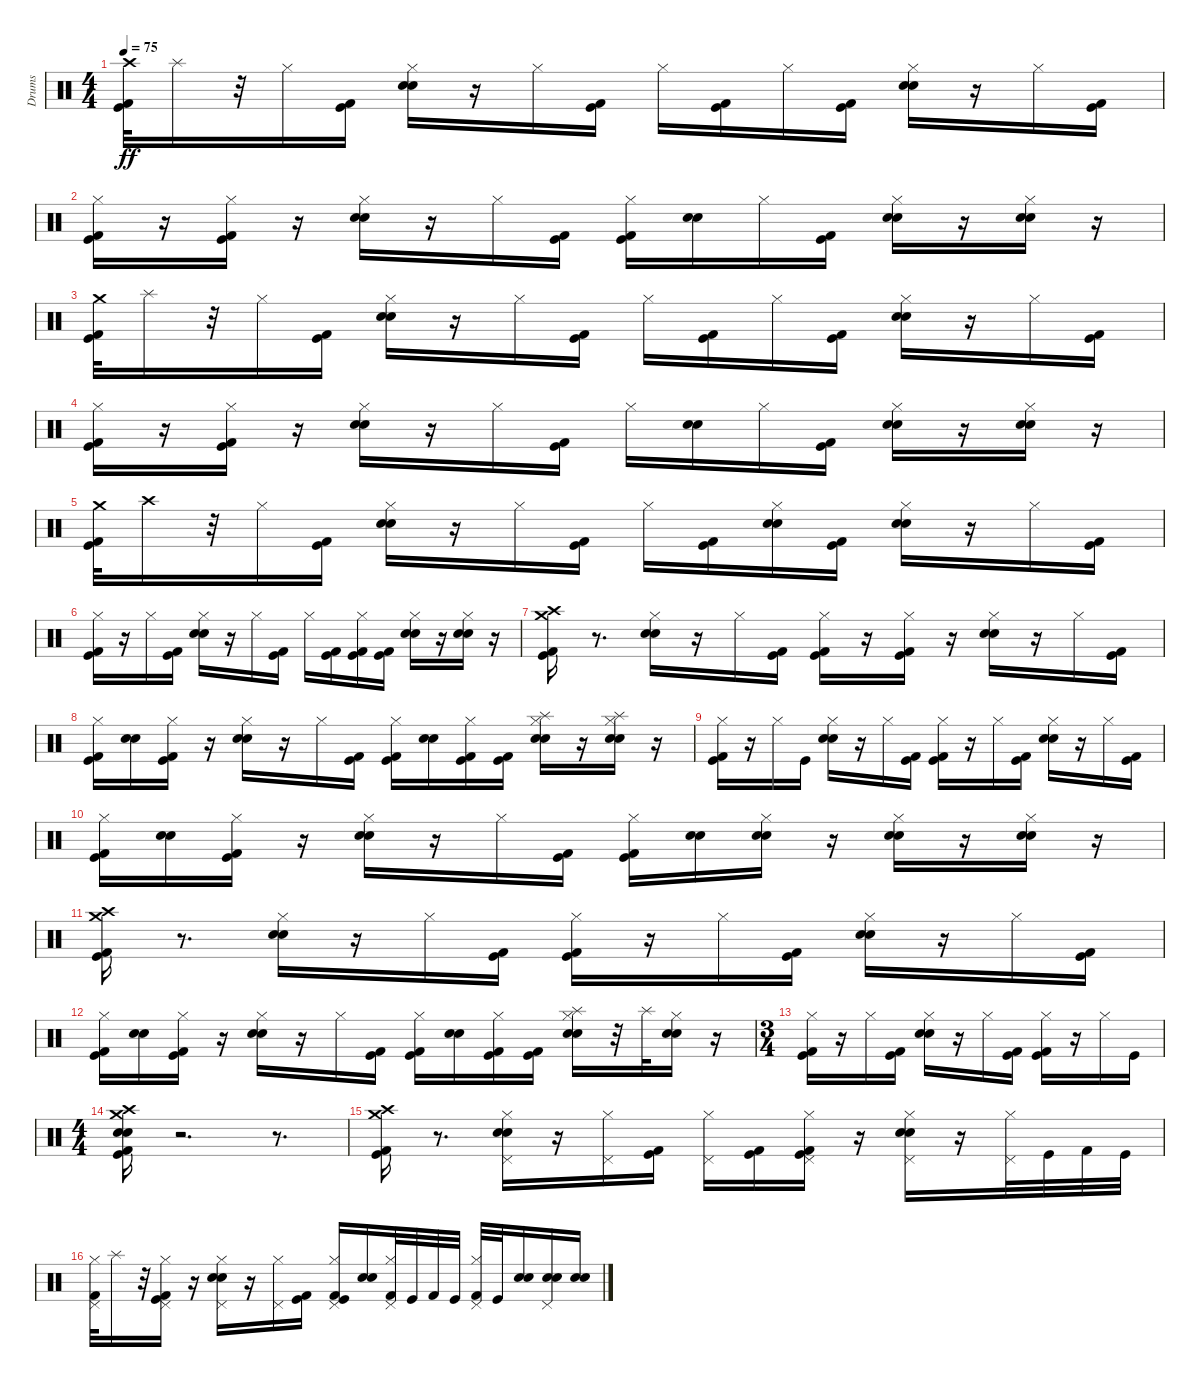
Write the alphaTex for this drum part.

\track ("Drums" "Drums") {instrument percussion}
\staff {score}
\articulation defaults
\ts (4 4)
\tempo 75
\clef neutral
\ks c
("Kick (hit)" "Crash high (hit)" "Kick (hit) 2").32{dy ff} "Splash (hit)".16 r.32 "Hi-Hat (closed)".16 ("Kick (hit) 2" "Kick (hit)").16 ("Snare (hit) 2" "Hi-Hat (closed)" "Electric Snare (hit)").16 r.16 "Hi-Hat (closed)".16 ("Kick (hit)" "Kick (hit) 2").16 "Hi-Hat (closed)".16 ("Kick (hit) 2" "Kick (hit)").16 "Hi-Hat (closed)".16 ("Kick (hit)" "Kick (hit) 2").16 ("Snare (hit) 2" "Electric Snare (hit)" "Hi-Hat (closed)").16 r.16 "Hi-Hat (closed)".16 ("Kick (hit) 2" "Kick (hit)").16 |
("Hi-Hat (closed)" "Kick (hit) 2" "Kick (hit)").16 r.16 ("Kick (hit)" "Kick (hit) 2" "Hi-Hat (closed)").16 r.16 ("Electric Snare (hit)" "Hi-Hat (closed)" "Snare (hit) 2").16 r.16 "Hi-Hat (closed)".16 ("Kick (hit)" "Kick (hit) 2").16 ("Kick (hit) 2" "Kick (hit)" "Hi-Hat (closed)").16 ("Electric Snare (hit)" "Snare (hit) 2").16 "Hi-Hat (closed)".16 ("Kick (hit) 2" "Kick (hit)").16 ("Hi-Hat (closed)" "Electric Snare (hit)" "Snare (hit) 2").16 r.16 ("Hi-Hat (closed)" "Snare (hit) 2" "Electric Snare (hit)").16 r.16 |
("Kick (hit)" "Crash medium (hit)" "Kick (hit) 2").32 "Splash (hit)".16 r.32 "Hi-Hat (closed)".16 ("Kick (hit)" "Kick (hit) 2").16 ("Snare (hit) 2" "Hi-Hat (closed)" "Electric Snare (hit)").16 r.16 "Hi-Hat (closed)".16 ("Kick (hit) 2" "Kick (hit)").16 "Hi-Hat (closed)".16 ("Kick (hit)" "Kick (hit) 2").16 "Hi-Hat (closed)".16 ("Kick (hit)" "Kick (hit) 2").16 ("Electric Snare (hit)" "Hi-Hat (closed)" "Snare (hit) 2").16 r.16 "Hi-Hat (closed)".16 ("Kick (hit)" "Kick (hit) 2").16 |
("Hi-Hat (closed)" "Kick (hit) 2" "Kick (hit)").16 r.16 ("Hi-Hat (closed)" "Kick (hit)" "Kick (hit) 2").16 r.16 ("Snare (hit) 2" "Hi-Hat (closed)" "Electric Snare (hit)").16 r.16 "Hi-Hat (closed)".16 ("Kick (hit)" "Kick (hit) 2").16 "Hi-Hat (closed)".16 ("Electric Snare (hit)" "Snare (hit) 2").16 "Hi-Hat (closed)".16 ("Kick (hit) 2" "Kick (hit)").16 ("Hi-Hat (closed)" "Snare (hit) 2" "Electric Snare (hit)").16 r.16 ("Snare (hit) 2" "Hi-Hat (closed)" "Electric Snare (hit)").16 r.16 |
("Crash medium (hit)" "Kick (hit) 2" "Kick (hit)").32 "Crash high (hit)".16 r.32 "Hi-Hat (closed)".16 ("Kick (hit)" "Kick (hit) 2").16 ("Hi-Hat (closed)" "Electric Snare (hit)" "Snare (hit) 2").16 r.16 "Hi-Hat (closed)".16 ("Kick (hit) 2" "Kick (hit)").16 "Hi-Hat (closed)".16 ("Kick (hit)" "Kick (hit) 2").16 ("Snare (hit) 2" "Hi-Hat (closed)" "Electric Snare (hit)").16 ("Kick (hit)" "Kick (hit) 2").16 ("Snare (hit) 2" "Electric Snare (hit)" "Hi-Hat (closed)").16 r.16 "Hi-Hat (closed)".16 ("Kick (hit) 2" "Kick (hit)").16 |
("Kick (hit)" "Hi-Hat (closed)" "Kick (hit) 2").16 r.16 "Hi-Hat (closed)".16 ("Kick (hit) 2" "Kick (hit)").16 ("Hi-Hat (closed)" "Snare (hit) 2" "Electric Snare (hit)").16 r.16 "Hi-Hat (closed)".16 ("Kick (hit)" "Kick (hit) 2").16 "Hi-Hat (closed)".16 ("Kick (hit) 2" "Kick (hit)").16 ("Kick (hit) 2" "Hi-Hat (closed)" "Kick (hit)").16 ("Kick (hit)" "Kick (hit) 2").16 ("Electric Snare (hit)" "Hi-Hat (closed)" "Snare (hit) 2").16 r.16 ("Hi-Hat (closed)" "Electric Snare (hit)" "Snare (hit) 2").16 r.16 |
("Crash medium (hit)" "Crash high (hit)" "Kick (hit) 2" "Kick (hit)").16 r.8{d} ("Hi-Hat (closed)" "Snare (hit) 2" "Electric Snare (hit)").16 r.16 "Hi-Hat (closed)".16 ("Kick (hit)" "Kick (hit) 2").16 ("Kick (hit) 2" "Kick (hit)" "Hi-Hat (closed)").16 r.16 ("Hi-Hat (closed)" "Kick (hit) 2" "Kick (hit)").16 r.16 ("Snare (hit) 2" "Electric Snare (hit)" "Hi-Hat (closed)").16 r.16 "Hi-Hat (closed)".16 ("Kick (hit) 2" "Kick (hit)").16 |
("Hi-Hat (closed)" "Kick (hit) 2" "Kick (hit)").16 ("Snare (hit) 2" "Electric Snare (hit)").16 ("Hi-Hat (closed)" "Kick (hit)" "Kick (hit) 2").16 r.16 ("Hi-Hat (closed)" "Electric Snare (hit)" "Snare (hit) 2").16 r.16 "Hi-Hat (closed)".16 ("Kick (hit) 2" "Kick (hit)").16 ("Kick (hit)" "Kick (hit) 2" "Hi-Hat (closed)").16 ("Electric Snare (hit)" "Snare (hit) 2").16 ("Kick (hit) 2" "Hi-Hat (closed)" "Kick (hit)").16 ("Kick (hit)" "Kick (hit) 2").16 ("Electric Snare (hit)" "Snare (hit) 2" "Hi-Hat (closed)" "Splash (hit)").16 r.16 ("Hi-Hat (closed)" "Electric Snare (hit)" "Snare (hit) 2" "Splash (hit)").16 r.16 |
("Kick (hit) 2" "Kick (hit)" "Hi-Hat (closed)").16 r.16 "Hi-Hat (closed)".16 "Kick (hit)".16 ("Hi-Hat (closed)" "Electric Snare (hit)" "Snare (hit) 2").16 r.16 "Hi-Hat (closed)".16 ("Kick (hit) 2" "Kick (hit)").16 ("Kick (hit)" "Kick (hit) 2" "Hi-Hat (closed)").16 r.16 "Hi-Hat (closed)".16 ("Kick (hit)" "Kick (hit) 2").16 ("Hi-Hat (closed)" "Snare (hit) 2" "Electric Snare (hit)").16 r.16 "Hi-Hat (closed)".16 ("Kick (hit) 2" "Kick (hit)").16 |
("Kick (hit)" "Kick (hit) 2" "Hi-Hat (closed)").16 ("Snare (hit) 2" "Electric Snare (hit)").16 ("Hi-Hat (closed)" "Kick (hit) 2" "Kick (hit)").16 r.16 ("Hi-Hat (closed)" "Snare (hit) 2" "Electric Snare (hit)").16 r.16 "Hi-Hat (closed)".16 ("Kick (hit)" "Kick (hit) 2").16 ("Kick (hit) 2" "Kick (hit)" "Hi-Hat (closed)").16 ("Electric Snare (hit)" "Snare (hit) 2").16 ("Electric Snare (hit)" "Snare (hit) 2" "Hi-Hat (closed)").16 r.16 ("Snare (hit) 2" "Hi-Hat (closed)" "Electric Snare (hit)").16 r.16 ("Hi-Hat (closed)" "Electric Snare (hit)" "Snare (hit) 2").16 r.16 |
("Kick (hit)" "Kick (hit) 2" "Crash medium (hit)" "Crash high (hit)").16 r.8{d} ("Snare (hit) 2" "Electric Snare (hit)" "Hi-Hat (closed)").16 r.16 "Hi-Hat (closed)".16 ("Kick (hit)" "Kick (hit) 2").16 ("Kick (hit) 2" "Hi-Hat (closed)" "Kick (hit)").16 r.16 "Hi-Hat (closed)".16 ("Kick (hit)" "Kick (hit) 2").16 ("Electric Snare (hit)" "Snare (hit) 2" "Hi-Hat (closed)").16 r.16 "Hi-Hat (closed)".16 ("Kick (hit) 2" "Kick (hit)").16 |
("Kick (hit)" "Hi-Hat (closed)" "Kick (hit) 2").16 ("Snare (hit) 2" "Electric Snare (hit)").16 ("Kick (hit)" "Hi-Hat (closed)" "Kick (hit) 2").16 r.16 ("Electric Snare (hit)" "Snare (hit) 2" "Hi-Hat (closed)").16 r.16 "Hi-Hat (closed)".16 ("Kick (hit) 2" "Kick (hit)").16 ("Kick (hit)" "Hi-Hat (closed)" "Kick (hit) 2").16 ("Electric Snare (hit)" "Snare (hit) 2").16 ("Kick (hit) 2" "Kick (hit)" "Hi-Hat (closed)").16 ("Kick (hit) 2" "Kick (hit)").16 ("Splash (hit)" "Electric Snare (hit)" "Snare (hit) 2" "Hi-Hat (closed)").16 r.32 "Splash (hit)".32 ("Snare (hit) 2" "Hi-Hat (closed)" "Electric Snare (hit)").16 r.16 |
\ts (3 4)
("Kick (hit)" "Kick (hit) 2" "Hi-Hat (closed)").16 r.16 "Hi-Hat (closed)".16 ("Kick (hit) 2" "Kick (hit)").16 ("Snare (hit) 2" "Electric Snare (hit)" "Hi-Hat (closed)").16 r.16 "Hi-Hat (closed)".16 ("Kick (hit)" "Kick (hit) 2").16 ("Kick (hit)" "Kick (hit) 2" "Hi-Hat (closed)").16 r.16 "Hi-Hat (closed)".16 "Kick (hit)".16 |
\ts (4 4)
("Snare (hit) 2" "Kick (hit)" "Crash high (hit)" "Crash medium (hit)" "Electric Snare (hit)" "Kick (hit) 2").16 r.2{d} r.8{d} |
("Kick (hit) 2" "Crash medium (hit)" "Crash high (hit)" "Kick (hit)").16 r.8{d} ("Snare (hit) 2" "Electric Snare (hit)" "Hi-Hat (closed)" "Pedal Hi-Hat (hit)").16 r.16 ("Hi-Hat (closed)" "Pedal Hi-Hat (hit)").16 ("Kick (hit) 2" "Kick (hit)").16 ("Pedal Hi-Hat (hit)" "Hi-Hat (closed)").16 ("Kick (hit)" "Kick (hit) 2").16 ("Pedal Hi-Hat (hit)" "Hi-Hat (closed)" "Kick (hit) 2" "Kick (hit)").16 r.16 ("Pedal Hi-Hat (hit)" "Electric Snare (hit)" "Hi-Hat (closed)" "Snare (hit) 2").16 r.16 ("Pedal Hi-Hat (hit)" "Hi-Hat (closed)").32 "Kick (hit)".32 "Kick (hit) 2".32 "Kick (hit)".32 |
("Pedal Hi-Hat (hit)" "Kick (hit) 2" "Hi-Hat (closed)").32 "Splash (hit)".16 r.32 ("Hi-Hat (closed)" "Kick (hit)" "Pedal Hi-Hat (hit)" "Kick (hit) 2").16 r.16 ("Hi-Hat (closed)" "Pedal Hi-Hat (hit)" "Snare (hit) 2" "Electric Snare (hit)").16 r.16 ("Pedal Hi-Hat (hit)" "Hi-Hat (closed)").16 ("Kick (hit) 2" "Kick (hit)").16 ("Pedal Hi-Hat (hit)" "Kick (hit) 2" "Kick (hit)" "Hi-Hat (closed)").16 ("Electric Snare (hit)" "Snare (hit) 2").16 ("Pedal Hi-Hat (hit)" "Kick (hit) 2" "Hi-Hat (closed)").32 "Kick (hit)".32 "Kick (hit) 2".32 "Kick (hit)".32 ("Hi-Hat (closed)" "Pedal Hi-Hat (hit)" "Kick (hit) 2").32 "Kick (hit)".32 ("Snare (hit) 2" "Electric Snare (hit)").16 ("Snare (hit) 2" "Pedal Hi-Hat (hit)" "Electric Snare (hit)").16 ("Snare (hit) 2" "Electric Snare (hit)").16
